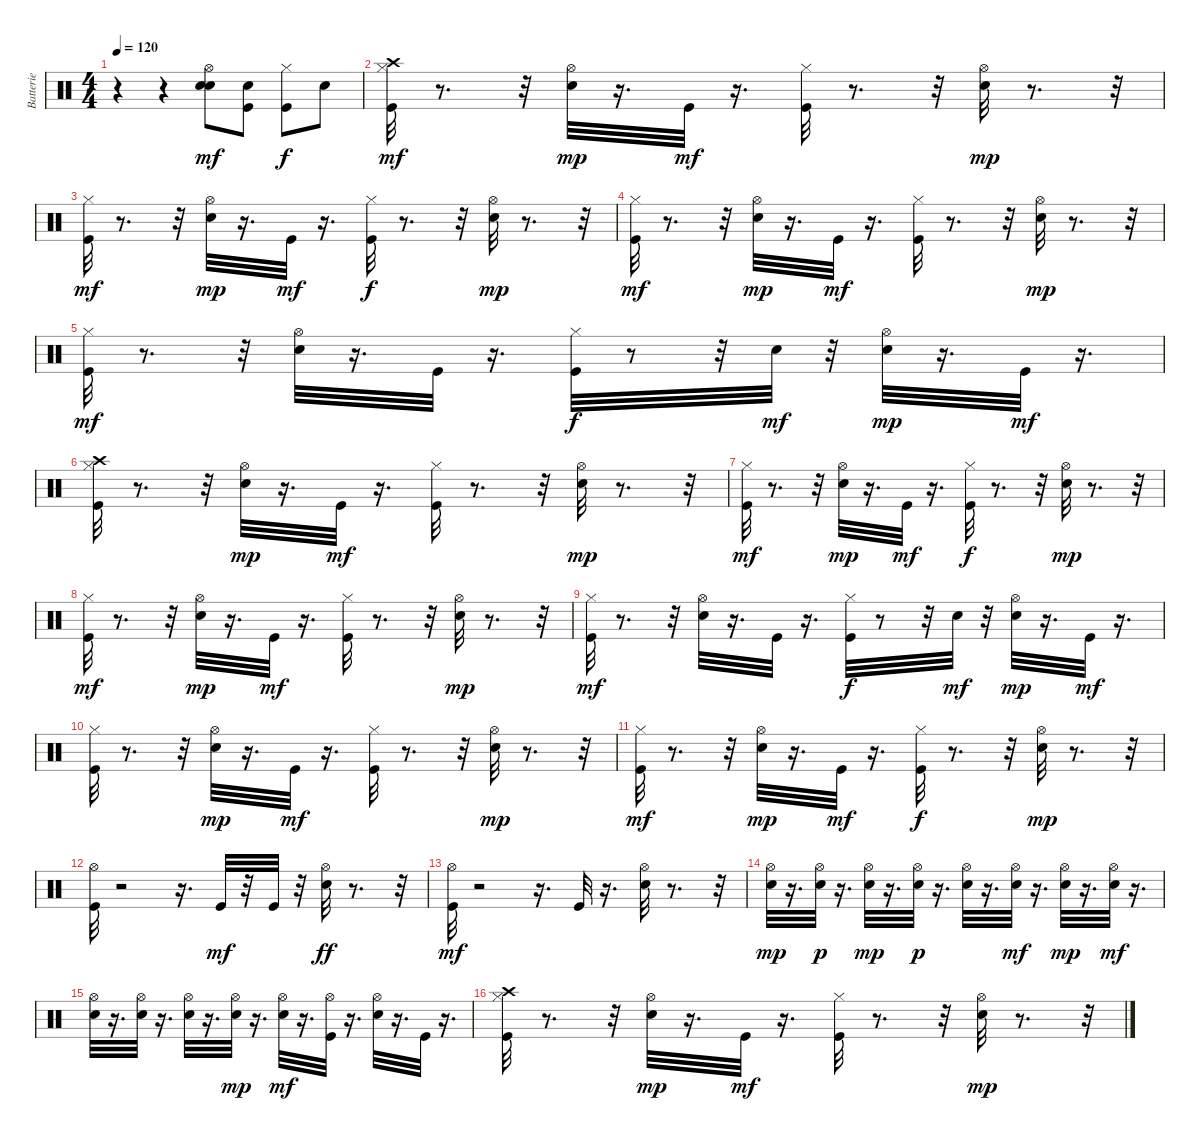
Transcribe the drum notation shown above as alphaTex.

\track ("Batterie" "Batterie") {instrument percussion}
\staff {score}
\articulation defaults
\ts (4 4)
\tempo 120
\clef neutral
\ks c
r.4{dy mf} r.4 ("Hi-Hat (open)" "Electric Snare (hit)" "Snare (hit) 2").8 ("Kick (hit)" "Electric Snare (hit)").8 ("Hi-Hat (closed)" "Kick (hit)").8{dy f} "Electric Snare (hit)".8 |
("Crash high (hit)" "Hi-Hat (closed)" "Kick (hit)").32{dy mf} r.8{d} r.32 ("Hi-Hat (open)" "Electric Snare (hit)").32{dy mp} r.16{d} "Kick (hit)".32{dy mf} r.16{d} ("Hi-Hat (closed)" "Kick (hit)").32 r.8{d} r.32 ("Hi-Hat (open)" "Electric Snare (hit)").32{dy mp} r.8{d} r.32 |
("Hi-Hat (closed)" "Kick (hit)").32{dy mf} r.8{d} r.32 ("Hi-Hat (open)" "Electric Snare (hit)").32{dy mp} r.16{d} "Kick (hit)".32{dy mf} r.16{d} ("Hi-Hat (closed)" "Kick (hit)").32{dy f} r.8{d} r.32 ("Hi-Hat (open)" "Electric Snare (hit)").32{dy mp} r.8{d} r.32 |
("Hi-Hat (closed)" "Kick (hit)").32{dy mf} r.8{d} r.32 ("Hi-Hat (open)" "Electric Snare (hit)").32{dy mp} r.16{d} "Kick (hit)".32{dy mf} r.16{d} ("Hi-Hat (closed)" "Kick (hit)").32 r.8{d} r.32 ("Hi-Hat (open)" "Electric Snare (hit)").32{dy mp} r.8{d} r.32 |
("Hi-Hat (closed)" "Kick (hit)").32{dy mf} r.8{d} r.32 ("Hi-Hat (open)" "Electric Snare (hit)").32 r.16{d} "Kick (hit)".32 r.16{d} ("Hi-Hat (closed)" "Kick (hit)").32{dy f} r.8 r.32 "Electric Snare (hit)".32{dy mf} r.32 ("Hi-Hat (open)" "Electric Snare (hit)").32{dy mp} r.16{d} "Kick (hit)".32{dy mf} r.16{d} |
("Crash high (hit)" "Hi-Hat (closed)" "Kick (hit)").32 r.8{d} r.32 ("Hi-Hat (open)" "Electric Snare (hit)").32{dy mp} r.16{d} "Kick (hit)".32{dy mf} r.16{d} ("Hi-Hat (closed)" "Kick (hit)").32 r.8{d} r.32 ("Hi-Hat (open)" "Electric Snare (hit)").32{dy mp} r.8{d} r.32 |
("Hi-Hat (closed)" "Kick (hit)").32{dy mf} r.8{d} r.32 ("Hi-Hat (open)" "Electric Snare (hit)").32{dy mp} r.16{d} "Kick (hit)".32{dy mf} r.16{d} ("Hi-Hat (closed)" "Kick (hit)").32{dy f} r.8{d} r.32 ("Hi-Hat (open)" "Electric Snare (hit)").32{dy mp} r.8{d} r.32 |
("Hi-Hat (closed)" "Kick (hit)").32{dy mf} r.8{d} r.32 ("Hi-Hat (open)" "Electric Snare (hit)").32{dy mp} r.16{d} "Kick (hit)".32{dy mf} r.16{d} ("Hi-Hat (closed)" "Kick (hit)").32 r.8{d} r.32 ("Hi-Hat (open)" "Electric Snare (hit)").32{dy mp} r.8{d} r.32 |
("Hi-Hat (closed)" "Kick (hit)").32{dy mf} r.8{d} r.32 ("Hi-Hat (open)" "Electric Snare (hit)").32 r.16{d} "Kick (hit)".32 r.16{d} ("Hi-Hat (closed)" "Kick (hit)").32{dy f} r.8 r.32 "Electric Snare (hit)".32{dy mf} r.32 ("Hi-Hat (open)" "Electric Snare (hit)").32{dy mp} r.16{d} "Kick (hit)".32{dy mf} r.16{d} |
("Hi-Hat (closed)" "Kick (hit)").32 r.8{d} r.32 ("Hi-Hat (open)" "Electric Snare (hit)").32{dy mp} r.16{d} "Kick (hit)".32{dy mf} r.16{d} ("Hi-Hat (closed)" "Kick (hit)").32 r.8{d} r.32 ("Hi-Hat (open)" "Electric Snare (hit)").32{dy mp} r.8{d} r.32 |
("Hi-Hat (closed)" "Kick (hit)").32{dy mf} r.8{d} r.32 ("Hi-Hat (open)" "Electric Snare (hit)").32{dy mp} r.16{d} "Kick (hit)".32{dy mf} r.16{d} ("Hi-Hat (closed)" "Kick (hit)").32{dy f} r.8{d} r.32 ("Hi-Hat (open)" "Electric Snare (hit)").32{dy mp} r.8{d} r.32 |
("Hi-Hat (open)" "Kick (hit)").32 r.2 r.16{d} "Kick (hit)".32{dy mf} r.32 "Kick (hit)".32 r.32 ("Hi-Hat (open)" "Electric Snare (hit)").32{dy ff} r.8{d} r.32 |
("Hi-Hat (open)" "Kick (hit)").32{dy mf} r.2 r.16{d} "Kick (hit)".32 r.16{d} ("Hi-Hat (open)" "Electric Snare (hit)").32 r.8{d} r.32 |
("Hi-Hat (open)" "Electric Snare (hit)").32{dy mp} r.16{d} ("Hi-Hat (open)" "Electric Snare (hit)").32{dy p} r.16{d} ("Hi-Hat (open)" "Electric Snare (hit)").32{dy mp} r.16{d} ("Hi-Hat (open)" "Electric Snare (hit)").32{dy p} r.16{d} ("Hi-Hat (open)" "Electric Snare (hit)").32 r.16{d} ("Hi-Hat (open)" "Electric Snare (hit)").32{dy mf} r.16{d} ("Hi-Hat (open)" "Electric Snare (hit)").32{dy mp} r.16{d} ("Hi-Hat (open)" "Electric Snare (hit)").32{dy mf} r.16{d} |
("Hi-Hat (open)" "Electric Snare (hit)").32 r.16{d} ("Hi-Hat (open)" "Electric Snare (hit)").32 r.16{d} ("Hi-Hat (open)" "Electric Snare (hit)").32 r.16{d} ("Hi-Hat (open)" "Electric Snare (hit)").32{dy mp} r.16{d} ("Hi-Hat (open)" "Electric Snare (hit)").32{dy mf} r.16{d} ("Hi-Hat (open)" "Kick (hit)").32 r.16{d} ("Hi-Hat (open)" "Electric Snare (hit)").32 r.16{d} "Kick (hit)".32 r.16{d} |
("Crash high (hit)" "Hi-Hat (closed)" "Kick (hit)").32 r.8{d} r.32 ("Hi-Hat (open)" "Electric Snare (hit)").32{dy mp} r.16{d} "Kick (hit)".32{dy mf} r.16{d} ("Hi-Hat (closed)" "Kick (hit)").32 r.8{d} r.32 ("Hi-Hat (open)" "Electric Snare (hit)").32{dy mp} r.8{d} r.32
